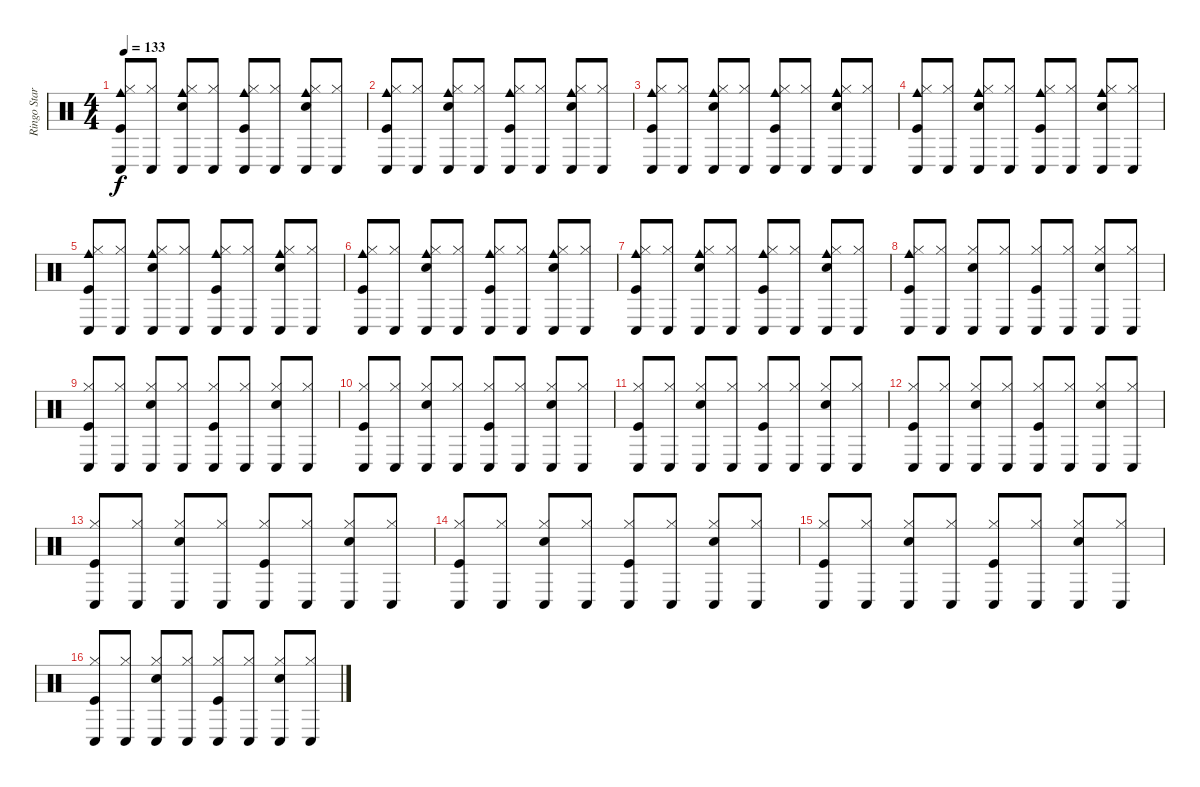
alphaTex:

\track ("Ringo Starr - Drums" "Ringo Star") {instrument percussion}
\staff {score}
\articulation defaults
\ts (4 4)
\tempo 133
\clef neutral
\ks c
("Cowbell medium (hit)" "Conga low (hit)" "Hi-Hat (closed)" "Kick (hit)").8{dy f} ("Conga low (hit)" "Hi-Hat (closed)").8 ("Conga low (hit)" "Hi-Hat (closed)" "Snare (hit) 2" "Cowbell medium (hit)").8 ("Conga low (hit)" "Hi-Hat (closed)").8 ("Conga low (hit)" "Hi-Hat (closed)" "Kick (hit)" "Cowbell medium (hit)").8 ("Conga low (hit)" "Hi-Hat (closed)").8 ("Conga low (hit)" "Hi-Hat (closed)" "Snare (hit) 2" "Cowbell medium (hit)").8 ("Conga low (hit)" "Hi-Hat (closed)").8 |
("Cowbell medium (hit)" "Conga low (hit)" "Hi-Hat (closed)" "Kick (hit)").8 ("Conga low (hit)" "Hi-Hat (closed)").8 ("Conga low (hit)" "Hi-Hat (closed)" "Snare (hit) 2" "Cowbell medium (hit)").8 ("Conga low (hit)" "Hi-Hat (closed)").8 ("Conga low (hit)" "Hi-Hat (closed)" "Kick (hit)" "Cowbell medium (hit)").8 ("Conga low (hit)" "Hi-Hat (closed)").8 ("Conga low (hit)" "Hi-Hat (closed)" "Snare (hit) 2" "Cowbell medium (hit)").8 ("Conga low (hit)" "Hi-Hat (closed)").8 |
("Cowbell medium (hit)" "Conga low (hit)" "Hi-Hat (closed)" "Kick (hit)").8 ("Conga low (hit)" "Hi-Hat (closed)").8 ("Conga low (hit)" "Hi-Hat (closed)" "Snare (hit) 2" "Cowbell medium (hit)").8 ("Conga low (hit)" "Hi-Hat (closed)").8 ("Conga low (hit)" "Hi-Hat (closed)" "Kick (hit)" "Cowbell medium (hit)").8 ("Conga low (hit)" "Hi-Hat (closed)").8 ("Conga low (hit)" "Hi-Hat (closed)" "Snare (hit) 2" "Cowbell medium (hit)").8 ("Conga low (hit)" "Hi-Hat (closed)").8 |
("Cowbell medium (hit)" "Conga low (hit)" "Hi-Hat (closed)" "Kick (hit)").8 ("Conga low (hit)" "Hi-Hat (closed)").8 ("Conga low (hit)" "Hi-Hat (closed)" "Snare (hit) 2" "Cowbell medium (hit)").8 ("Conga low (hit)" "Hi-Hat (closed)").8 ("Conga low (hit)" "Hi-Hat (closed)" "Kick (hit)" "Cowbell medium (hit)").8 ("Conga low (hit)" "Hi-Hat (closed)").8 ("Conga low (hit)" "Hi-Hat (closed)" "Snare (hit) 2" "Cowbell medium (hit)").8 ("Conga low (hit)" "Hi-Hat (closed)").8 |
("Cowbell medium (hit)" "Conga low (hit)" "Hi-Hat (closed)" "Kick (hit)").8 ("Conga low (hit)" "Hi-Hat (closed)").8 ("Conga low (hit)" "Hi-Hat (closed)" "Snare (hit) 2" "Cowbell medium (hit)").8 ("Conga low (hit)" "Hi-Hat (closed)").8 ("Conga low (hit)" "Hi-Hat (closed)" "Kick (hit)" "Cowbell medium (hit)").8 ("Conga low (hit)" "Hi-Hat (closed)").8 ("Conga low (hit)" "Hi-Hat (closed)" "Snare (hit) 2" "Cowbell medium (hit)").8 ("Conga low (hit)" "Hi-Hat (closed)").8 |
("Cowbell medium (hit)" "Conga low (hit)" "Hi-Hat (closed)" "Kick (hit)").8 ("Conga low (hit)" "Hi-Hat (closed)").8 ("Conga low (hit)" "Hi-Hat (closed)" "Snare (hit) 2" "Cowbell medium (hit)").8 ("Conga low (hit)" "Hi-Hat (closed)").8 ("Conga low (hit)" "Hi-Hat (closed)" "Kick (hit)" "Cowbell medium (hit)").8 ("Conga low (hit)" "Hi-Hat (closed)").8 ("Conga low (hit)" "Hi-Hat (closed)" "Snare (hit) 2" "Cowbell medium (hit)").8 ("Conga low (hit)" "Hi-Hat (closed)").8 |
("Cowbell medium (hit)" "Conga low (hit)" "Hi-Hat (closed)" "Kick (hit)").8 ("Conga low (hit)" "Hi-Hat (closed)").8 ("Conga low (hit)" "Hi-Hat (closed)" "Snare (hit) 2" "Cowbell medium (hit)").8 ("Conga low (hit)" "Hi-Hat (closed)").8 ("Conga low (hit)" "Hi-Hat (closed)" "Kick (hit)" "Cowbell medium (hit)").8 ("Conga low (hit)" "Hi-Hat (closed)").8 ("Conga low (hit)" "Hi-Hat (closed)" "Snare (hit) 2" "Cowbell medium (hit)").8 ("Conga low (hit)" "Hi-Hat (closed)").8 |
("Conga low (hit)" "Hi-Hat (closed)" "Kick (hit)" "Cowbell medium (hit)").8 ("Conga low (hit)" "Hi-Hat (closed)").8 ("Conga low (hit)" "Hi-Hat (closed)" "Snare (hit) 2").8 ("Conga low (hit)" "Hi-Hat (closed)").8 ("Conga low (hit)" "Hi-Hat (closed)" "Kick (hit)").8 ("Conga low (hit)" "Hi-Hat (closed)").8 ("Conga low (hit)" "Hi-Hat (closed)" "Snare (hit) 2").8 ("Conga low (hit)" "Hi-Hat (closed)").8 |
("Kick (hit)" "Hi-Hat (closed)" "Conga low (hit)").8 ("Conga low (hit)" "Hi-Hat (closed)").8 ("Conga low (hit)" "Hi-Hat (closed)" "Snare (hit) 2").8 ("Conga low (hit)" "Hi-Hat (closed)").8 ("Conga low (hit)" "Hi-Hat (closed)" "Kick (hit)").8 ("Conga low (hit)" "Hi-Hat (closed)").8 ("Conga low (hit)" "Hi-Hat (closed)" "Snare (hit) 2").8 ("Conga low (hit)" "Hi-Hat (closed)").8 |
("Kick (hit)" "Hi-Hat (closed)" "Conga low (hit)").8 ("Conga low (hit)" "Hi-Hat (closed)").8 ("Conga low (hit)" "Hi-Hat (closed)" "Snare (hit) 2").8 ("Conga low (hit)" "Hi-Hat (closed)").8 ("Conga low (hit)" "Hi-Hat (closed)" "Kick (hit)").8 ("Conga low (hit)" "Hi-Hat (closed)").8 ("Conga low (hit)" "Hi-Hat (closed)" "Snare (hit) 2").8 ("Conga low (hit)" "Hi-Hat (closed)").8 |
("Kick (hit)" "Hi-Hat (closed)" "Conga low (hit)").8 ("Conga low (hit)" "Hi-Hat (closed)").8 ("Conga low (hit)" "Hi-Hat (closed)" "Snare (hit) 2").8 ("Conga low (hit)" "Hi-Hat (closed)").8 ("Conga low (hit)" "Hi-Hat (closed)" "Kick (hit)").8 ("Conga low (hit)" "Hi-Hat (closed)").8 ("Conga low (hit)" "Hi-Hat (closed)" "Snare (hit) 2").8 ("Conga low (hit)" "Hi-Hat (closed)").8 |
("Kick (hit)" "Hi-Hat (closed)" "Conga low (hit)").8 ("Conga low (hit)" "Hi-Hat (closed)").8 ("Conga low (hit)" "Hi-Hat (closed)" "Snare (hit) 2").8 ("Conga low (hit)" "Hi-Hat (closed)").8 ("Conga low (hit)" "Hi-Hat (closed)" "Kick (hit)").8 ("Conga low (hit)" "Hi-Hat (closed)").8 ("Conga low (hit)" "Hi-Hat (closed)" "Snare (hit) 2").8 ("Conga low (hit)" "Hi-Hat (closed)").8 |
("Kick (hit)" "Hi-Hat (closed)" "Conga low (hit)").8 ("Conga low (hit)" "Hi-Hat (closed)").8 ("Conga low (hit)" "Hi-Hat (closed)" "Snare (hit) 2").8 ("Conga low (hit)" "Hi-Hat (closed)").8 ("Conga low (hit)" "Hi-Hat (closed)" "Kick (hit)").8 ("Conga low (hit)" "Hi-Hat (closed)").8 ("Conga low (hit)" "Hi-Hat (closed)" "Snare (hit) 2").8 ("Conga low (hit)" "Hi-Hat (closed)").8 |
("Kick (hit)" "Hi-Hat (closed)" "Conga low (hit)").8 ("Conga low (hit)" "Hi-Hat (closed)").8 ("Conga low (hit)" "Hi-Hat (closed)" "Snare (hit) 2").8 ("Conga low (hit)" "Hi-Hat (closed)").8 ("Conga low (hit)" "Hi-Hat (closed)" "Kick (hit)").8 ("Conga low (hit)" "Hi-Hat (closed)").8 ("Conga low (hit)" "Hi-Hat (closed)" "Snare (hit) 2").8 ("Conga low (hit)" "Hi-Hat (closed)").8 |
("Kick (hit)" "Hi-Hat (closed)" "Conga low (hit)").8 ("Conga low (hit)" "Hi-Hat (closed)").8 ("Conga low (hit)" "Hi-Hat (closed)" "Snare (hit) 2").8 ("Conga low (hit)" "Hi-Hat (closed)").8 ("Conga low (hit)" "Hi-Hat (closed)" "Kick (hit)").8 ("Conga low (hit)" "Hi-Hat (closed)").8 ("Conga low (hit)" "Hi-Hat (closed)" "Snare (hit) 2").8 ("Conga low (hit)" "Hi-Hat (closed)").8 |
("Conga low (hit)" "Hi-Hat (closed)" "Kick (hit)").8 ("Conga low (hit)" "Hi-Hat (closed)").8 ("Conga low (hit)" "Hi-Hat (closed)" "Snare (hit) 2").8 ("Conga low (hit)" "Hi-Hat (closed)").8 ("Conga low (hit)" "Hi-Hat (closed)" "Kick (hit)").8 ("Conga low (hit)" "Hi-Hat (closed)").8 ("Conga low (hit)" "Hi-Hat (closed)" "Snare (hit) 2").8 ("Conga low (hit)" "Hi-Hat (closed)").8
